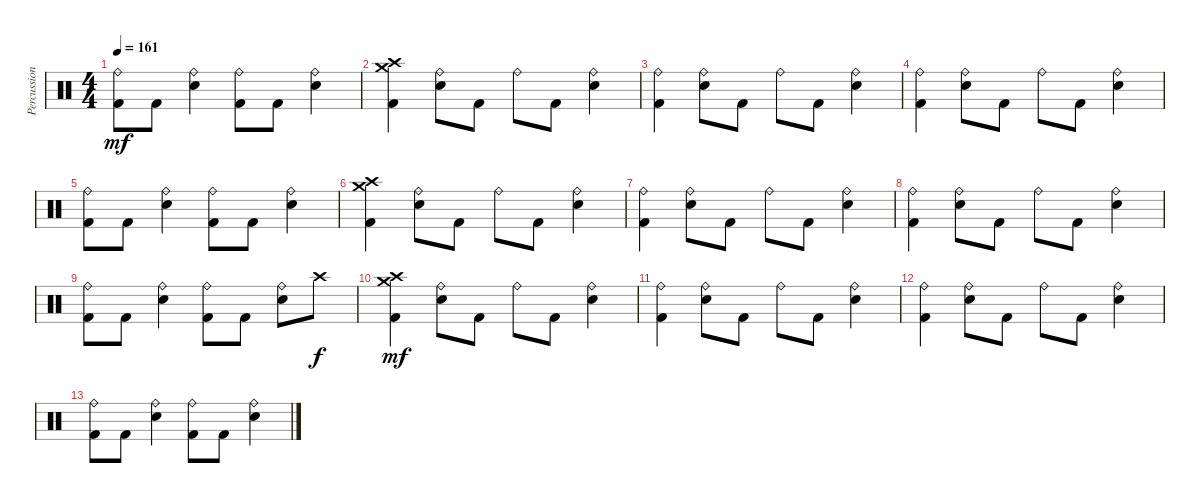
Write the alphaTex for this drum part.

\track ("Percussion" "Percussion") {instrument percussion}
\staff {score}
\articulation defaults
\ts (4 4)
\tempo 161
\clef neutral
\ks c
("Ride (bell)" "Kick (hit) 2").8{dy mf} "Kick (hit) 2".8 ("Ride (bell)" "Electric Snare (hit)").4 ("Ride (bell)" "Kick (hit) 2").8 "Kick (hit) 2".8 ("Ride (bell)" "Electric Snare (hit)").4 |
("Crash medium (hit)" "Crash high (hit)" "Kick (hit) 2").4 ("Ride (bell)" "Electric Snare (hit)").8 "Kick (hit) 2".8 "Ride (bell)".8 "Kick (hit) 2".8 ("Ride (bell)" "Electric Snare (hit)").4 |
("Ride (bell)" "Kick (hit) 2").4 ("Ride (bell)" "Electric Snare (hit)").8 "Kick (hit) 2".8 "Ride (bell)".8 "Kick (hit) 2".8 ("Ride (bell)" "Electric Snare (hit)").4 |
("Ride (bell)" "Kick (hit) 2").4 ("Ride (bell)" "Electric Snare (hit)").8 "Kick (hit) 2".8 "Ride (bell)".8 "Kick (hit) 2".8 ("Ride (bell)" "Electric Snare (hit)").4 |
("Ride (bell)" "Kick (hit) 2").8 "Kick (hit) 2".8 ("Ride (bell)" "Electric Snare (hit)").4 ("Ride (bell)" "Kick (hit) 2").8 "Kick (hit) 2".8 ("Ride (bell)" "Electric Snare (hit)").4 |
("Crash medium (hit)" "Crash high (hit)" "Kick (hit) 2").4 ("Ride (bell)" "Electric Snare (hit)").8 "Kick (hit) 2".8 "Ride (bell)".8 "Kick (hit) 2".8 ("Ride (bell)" "Electric Snare (hit)").4 |
("Ride (bell)" "Kick (hit) 2").4 ("Ride (bell)" "Electric Snare (hit)").8 "Kick (hit) 2".8 "Ride (bell)".8 "Kick (hit) 2".8 ("Ride (bell)" "Electric Snare (hit)").4 |
("Ride (bell)" "Kick (hit) 2").4 ("Ride (bell)" "Electric Snare (hit)").8 "Kick (hit) 2".8 "Ride (bell)".8 "Kick (hit) 2".8 ("Ride (bell)" "Electric Snare (hit)").4 |
("Ride (bell)" "Kick (hit) 2").8 "Kick (hit) 2".8 ("Ride (bell)" "Electric Snare (hit)").4 ("Ride (bell)" "Kick (hit) 2").8 "Kick (hit) 2".8 ("Ride (bell)" "Electric Snare (hit)").8 "Crash high (hit)".8{dy f} |
("Crash medium (hit)" "Crash high (hit)" "Kick (hit) 2").4{dy mf} ("Ride (bell)" "Electric Snare (hit)").8 "Kick (hit) 2".8 "Ride (bell)".8 "Kick (hit) 2".8 ("Ride (bell)" "Electric Snare (hit)").4 |
("Ride (bell)" "Kick (hit) 2").4 ("Ride (bell)" "Electric Snare (hit)").8 "Kick (hit) 2".8 "Ride (bell)".8 "Kick (hit) 2".8 ("Ride (bell)" "Electric Snare (hit)").4 |
("Ride (bell)" "Kick (hit) 2").4 ("Ride (bell)" "Electric Snare (hit)").8 "Kick (hit) 2".8 "Ride (bell)".8 "Kick (hit) 2".8 ("Ride (bell)" "Electric Snare (hit)").4 |
("Ride (bell)" "Kick (hit) 2").8 "Kick (hit) 2".8 ("Ride (bell)" "Electric Snare (hit)").4 ("Ride (bell)" "Kick (hit) 2").8 "Kick (hit) 2".8 ("Ride (bell)" "Electric Snare (hit)").4
